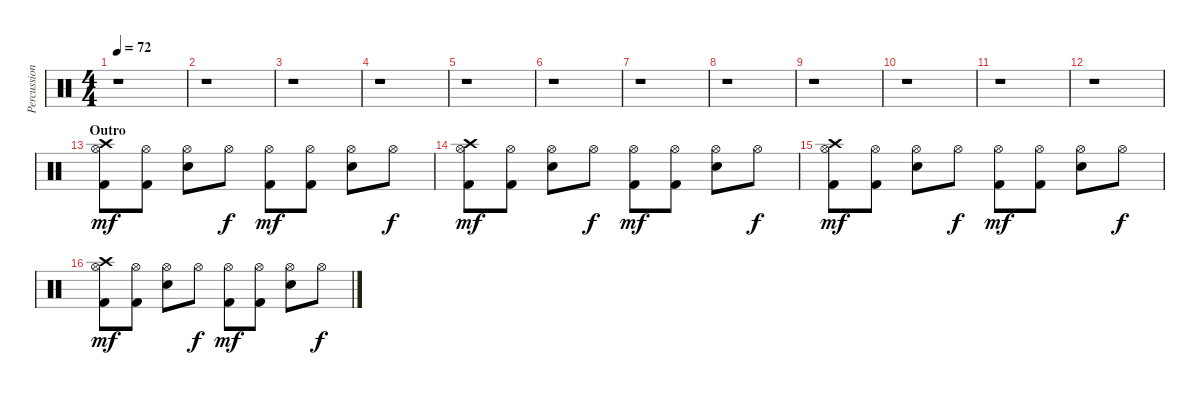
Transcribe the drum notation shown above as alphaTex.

\track ("Percussion" "Percussion") {instrument percussion}
\staff {score}
\articulation defaults
\ts (4 4)
\tempo 72
\clef neutral
\ks c
r.1{dy mf} |
r.1 |
r.1 |
r.1 |
r.1 |
r.1 |
r.1 |
r.1 |
r.1 |
r.1 |
r.1 |
r.1 |
\section ("" "Outro")
("Kick (hit) 2" "Hi-Hat (open)" "Crash high (hit)").8 ("Kick (hit) 2" "Hi-Hat (open)").8 ("Snare (hit) 2" "Hi-Hat (open)").8 "Hi-Hat (open)".8{dy f} ("Kick (hit) 2" "Hi-Hat (open)").8{dy mf} ("Kick (hit) 2" "Hi-Hat (open)").8 ("Snare (hit) 2" "Hi-Hat (open)").8 "Hi-Hat (open)".8{dy f} |
("Kick (hit) 2" "Hi-Hat (open)" "Crash high (hit)").8{dy mf} ("Kick (hit) 2" "Hi-Hat (open)").8 ("Snare (hit) 2" "Hi-Hat (open)").8 "Hi-Hat (open)".8{dy f} ("Kick (hit) 2" "Hi-Hat (open)").8{dy mf} ("Kick (hit) 2" "Hi-Hat (open)").8 ("Snare (hit) 2" "Hi-Hat (open)").8 "Hi-Hat (open)".8{dy f} |
("Kick (hit) 2" "Hi-Hat (open)" "Crash high (hit)").8{dy mf} ("Kick (hit) 2" "Hi-Hat (open)").8 ("Snare (hit) 2" "Hi-Hat (open)").8 "Hi-Hat (open)".8{dy f} ("Kick (hit) 2" "Hi-Hat (open)").8{dy mf} ("Kick (hit) 2" "Hi-Hat (open)").8 ("Snare (hit) 2" "Hi-Hat (open)").8 "Hi-Hat (open)".8{dy f} |
("Kick (hit) 2" "Hi-Hat (open)" "Crash high (hit)").8{dy mf} ("Kick (hit) 2" "Hi-Hat (open)").8 ("Snare (hit) 2" "Hi-Hat (open)").8 "Hi-Hat (open)".8{dy f} ("Kick (hit) 2" "Hi-Hat (open)").8{dy mf} ("Kick (hit) 2" "Hi-Hat (open)").8 ("Snare (hit) 2" "Hi-Hat (open)").8 "Hi-Hat (open)".8{dy f}
